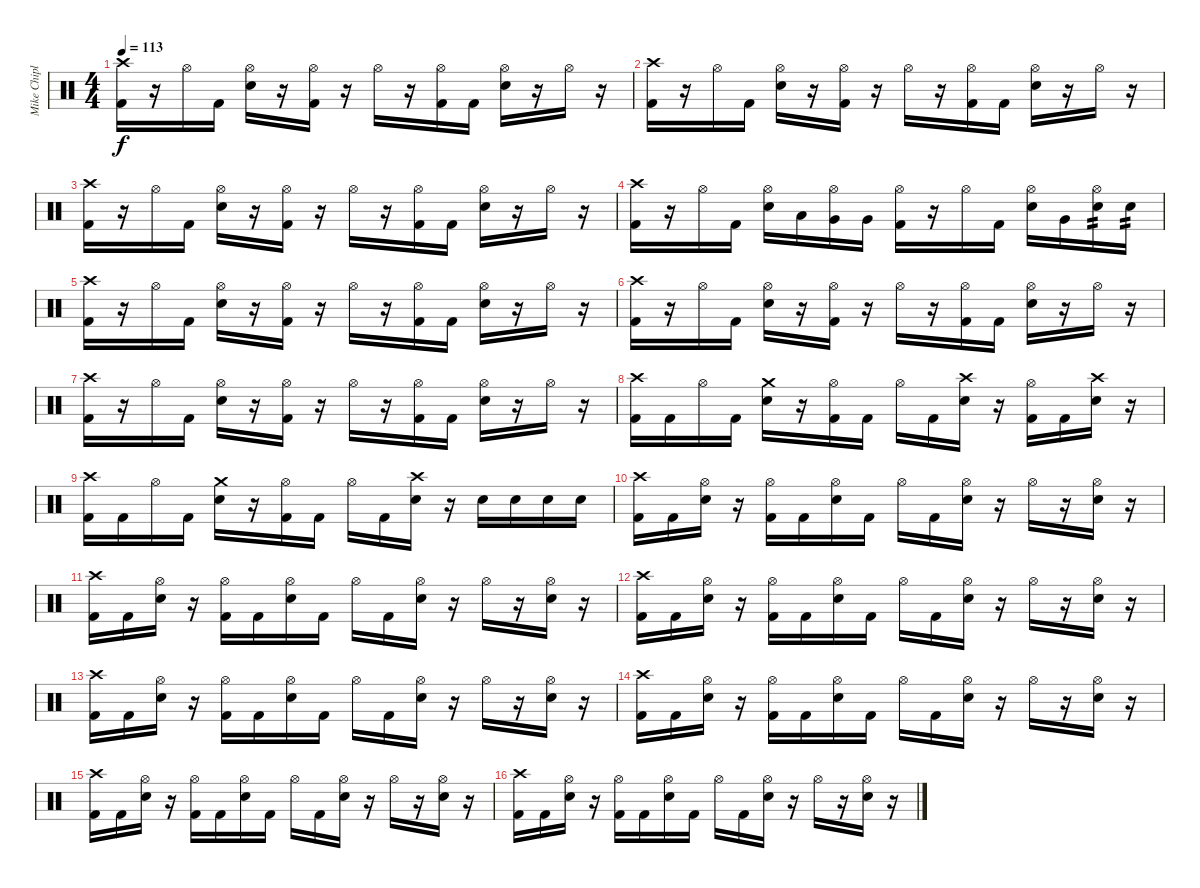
\track ("Mike Chiplin" "Mike Chipl") {instrument percussion}
\staff {score}
\articulation defaults
\ts (4 4)
\tempo 113
\clef neutral
\ks c
("Crash high (hit)" "Kick (hit) 2").16{dy f} r.16 "Hi-Hat (open)".16 "Kick (hit) 2".16 ("Hi-Hat (open)" "Snare (hit) 2").16 r.16 ("Hi-Hat (open)" "Kick (hit) 2").16 r.16 "Hi-Hat (open)".16 r.16 ("Hi-Hat (open)" "Kick (hit) 2").16 "Kick (hit) 2".16 ("Hi-Hat (open)" "Snare (hit) 2").16 r.16 "Hi-Hat (open)".16 r.16 |
("Crash high (hit)" "Kick (hit) 2").16 r.16 "Hi-Hat (open)".16 "Kick (hit) 2".16 ("Hi-Hat (open)" "Snare (hit) 2").16 r.16 ("Hi-Hat (open)" "Kick (hit) 2").16 r.16 "Hi-Hat (open)".16 r.16 ("Hi-Hat (open)" "Kick (hit) 2").16 "Kick (hit) 2".16 ("Hi-Hat (open)" "Snare (hit) 2").16 r.16 "Hi-Hat (open)".16 r.16 |
("Crash high (hit)" "Kick (hit) 2").16 r.16 "Hi-Hat (open)".16 "Kick (hit) 2".16 ("Hi-Hat (open)" "Snare (hit) 2").16 r.16 ("Hi-Hat (open)" "Kick (hit) 2").16 r.16 "Hi-Hat (open)".16 r.16 ("Hi-Hat (open)" "Kick (hit) 2").16 "Kick (hit) 2".16 ("Hi-Hat (open)" "Snare (hit) 2").16 r.16 "Hi-Hat (open)".16 r.16 |
("Crash high (hit)" "Kick (hit) 2").16 r.16 "Hi-Hat (open)".16 "Kick (hit) 2".16 ("Hi-Hat (open)" "Snare (hit) 2").16 "Low Tom (hit)".16 ("Hi-Hat (open)" "Very Low Tom (hit)").16 "Very Low Tom (hit)".16 ("Hi-Hat (open)" "Kick (hit) 2").16 r.16 "Hi-Hat (open)".16 "Kick (hit) 2".16 ("Hi-Hat (open)" "Snare (hit) 2").16 "Very Low Tom (hit)".16 ("Hi-Hat (open)" "Snare (hit) 2").16{tp 2} "Snare (hit) 2".16{tp 2} |
("Crash high (hit)" "Kick (hit) 2").16 r.16 "Hi-Hat (open)".16 "Kick (hit) 2".16 ("Hi-Hat (open)" "Snare (hit) 2").16 r.16 ("Hi-Hat (open)" "Kick (hit) 2").16 r.16 "Hi-Hat (open)".16 r.16 ("Hi-Hat (open)" "Kick (hit) 2").16 "Kick (hit) 2".16 ("Hi-Hat (open)" "Snare (hit) 2").16 r.16 "Hi-Hat (open)".16 r.16 |
("Crash high (hit)" "Kick (hit) 2").16 r.16 "Hi-Hat (open)".16 "Kick (hit) 2".16 ("Hi-Hat (open)" "Snare (hit) 2").16 r.16 ("Hi-Hat (open)" "Kick (hit) 2").16 r.16 "Hi-Hat (open)".16 r.16 ("Hi-Hat (open)" "Kick (hit) 2").16 "Kick (hit) 2".16 ("Hi-Hat (open)" "Snare (hit) 2").16 r.16 "Hi-Hat (open)".16 r.16 |
("Crash high (hit)" "Kick (hit) 2").16 r.16 "Hi-Hat (open)".16 "Kick (hit) 2".16 ("Hi-Hat (open)" "Snare (hit) 2").16 r.16 ("Hi-Hat (open)" "Kick (hit) 2").16 r.16 "Hi-Hat (open)".16 r.16 ("Hi-Hat (open)" "Kick (hit) 2").16 "Kick (hit) 2".16 ("Hi-Hat (open)" "Snare (hit) 2").16 r.16 "Hi-Hat (open)".16 r.16 |
("Crash high (hit)" "Kick (hit) 2").16 "Kick (hit) 2".16 "Hi-Hat (open)".16 "Kick (hit) 2".16 ("Crash medium (hit)" "Snare (hit) 2").16 r.16 ("Hi-Hat (open)" "Kick (hit) 2").16 "Kick (hit) 2".16 "Hi-Hat (open)".16 "Kick (hit) 2".16 ("Crash high (hit)" "Snare (hit) 2").16 r.16 ("Hi-Hat (open)" "Kick (hit) 2").16 "Kick (hit) 2".16 ("Crash high (hit)" "Snare (hit) 2").16 r.16 |
("Crash high (hit)" "Kick (hit) 2").16 "Kick (hit) 2".16 "Hi-Hat (open)".16 "Kick (hit) 2".16 ("Crash medium (hit)" "Snare (hit) 2").16 r.16 ("Hi-Hat (open)" "Kick (hit) 2").16 "Kick (hit) 2".16 "Hi-Hat (open)".16 "Kick (hit) 2".16 ("Crash high (hit)" "Snare (hit) 2").16 r.16 "Snare (hit) 2".16 "Snare (hit) 2".16 "Snare (hit) 2".16 "Snare (hit) 2".16 |
("Crash high (hit)" "Kick (hit) 2").16 "Kick (hit) 2".16 ("Hi-Hat (open)" "Snare (hit) 2").16 r.16 ("Hi-Hat (open)" "Kick (hit) 2").16 "Kick (hit) 2".16 ("Hi-Hat (open)" "Snare (hit) 2").16 "Kick (hit) 2".16 "Hi-Hat (open)".16 "Kick (hit) 2".16 ("Hi-Hat (open)" "Snare (hit) 2").16 r.16 "Hi-Hat (open)".16 r.16 ("Hi-Hat (open)" "Snare (hit) 2").16 r.16 |
("Crash high (hit)" "Kick (hit) 2").16 "Kick (hit) 2".16 ("Hi-Hat (open)" "Snare (hit) 2").16 r.16 ("Hi-Hat (open)" "Kick (hit) 2").16 "Kick (hit) 2".16 ("Hi-Hat (open)" "Snare (hit) 2").16 "Kick (hit) 2".16 "Hi-Hat (open)".16 "Kick (hit) 2".16 ("Hi-Hat (open)" "Snare (hit) 2").16 r.16 "Hi-Hat (open)".16 r.16 ("Hi-Hat (open)" "Snare (hit) 2").16 r.16 |
("Crash high (hit)" "Kick (hit) 2").16 "Kick (hit) 2".16 ("Hi-Hat (open)" "Snare (hit) 2").16 r.16 ("Hi-Hat (open)" "Kick (hit) 2").16 "Kick (hit) 2".16 ("Hi-Hat (open)" "Snare (hit) 2").16 "Kick (hit) 2".16 "Hi-Hat (open)".16 "Kick (hit) 2".16 ("Hi-Hat (open)" "Snare (hit) 2").16 r.16 "Hi-Hat (open)".16 r.16 ("Hi-Hat (open)" "Snare (hit) 2").16 r.16 |
("Crash high (hit)" "Kick (hit) 2").16 "Kick (hit) 2".16 ("Hi-Hat (open)" "Snare (hit) 2").16 r.16 ("Hi-Hat (open)" "Kick (hit) 2").16 "Kick (hit) 2".16 ("Hi-Hat (open)" "Snare (hit) 2").16 "Kick (hit) 2".16 "Hi-Hat (open)".16 "Kick (hit) 2".16 ("Hi-Hat (open)" "Snare (hit) 2").16 r.16 "Hi-Hat (open)".16 r.16 ("Hi-Hat (open)" "Snare (hit) 2").16 r.16 |
("Crash high (hit)" "Kick (hit) 2").16 "Kick (hit) 2".16 ("Hi-Hat (open)" "Snare (hit) 2").16 r.16 ("Hi-Hat (open)" "Kick (hit) 2").16 "Kick (hit) 2".16 ("Hi-Hat (open)" "Snare (hit) 2").16 "Kick (hit) 2".16 "Hi-Hat (open)".16 "Kick (hit) 2".16 ("Hi-Hat (open)" "Snare (hit) 2").16 r.16 "Hi-Hat (open)".16 r.16 ("Hi-Hat (open)" "Snare (hit) 2").16 r.16 |
("Crash high (hit)" "Kick (hit) 2").16 "Kick (hit) 2".16 ("Hi-Hat (open)" "Snare (hit) 2").16 r.16 ("Hi-Hat (open)" "Kick (hit) 2").16 "Kick (hit) 2".16 ("Hi-Hat (open)" "Snare (hit) 2").16 "Kick (hit) 2".16 "Hi-Hat (open)".16 "Kick (hit) 2".16 ("Hi-Hat (open)" "Snare (hit) 2").16 r.16 "Hi-Hat (open)".16 r.16 ("Hi-Hat (open)" "Snare (hit) 2").16 r.16 |
("Crash high (hit)" "Kick (hit) 2").16 "Kick (hit) 2".16 ("Hi-Hat (open)" "Snare (hit) 2").16 r.16 ("Hi-Hat (open)" "Kick (hit) 2").16 "Kick (hit) 2".16 ("Hi-Hat (open)" "Snare (hit) 2").16 "Kick (hit) 2".16 "Hi-Hat (open)".16 "Kick (hit) 2".16 ("Hi-Hat (open)" "Snare (hit) 2").16 r.16 "Hi-Hat (open)".16 r.16 ("Hi-Hat (open)" "Snare (hit) 2").16 r.16
